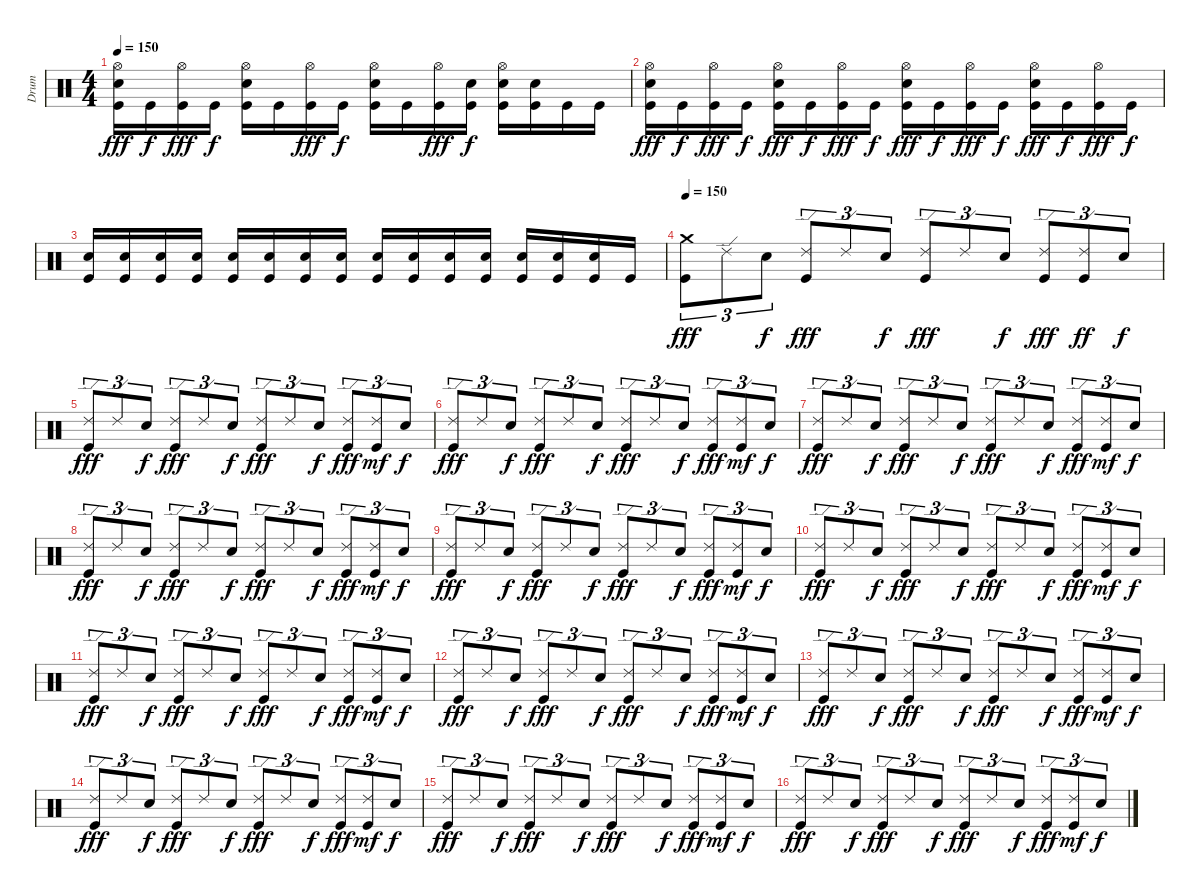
\track ("Drum" "Drum") {instrument percussion}
\staff {score}
\articulation defaults
\ts (4 4)
\tempo 150
\clef neutral
\ks c
("Hi-Hat (open)" "Snare (hit) 2" "Kick (hit)").16{dy fff} "Kick (hit)".16{dy f} ("Hi-Hat (open)" "Kick (hit)").16{dy fff} "Kick (hit)".16{dy f} ("Hi-Hat (open)" "Snare (hit) 2" "Kick (hit)").16 "Kick (hit)".16 ("Hi-Hat (open)" "Kick (hit)").16{dy fff} "Kick (hit)".16{dy f} ("Hi-Hat (open)" "Snare (hit) 2" "Kick (hit)").16 "Kick (hit)".16 ("Hi-Hat (open)" "Kick (hit)").16{dy fff} ("Snare (hit) 2" "Kick (hit)").16{dy f} ("Hi-Hat (open)" "Snare (hit) 2" "Kick (hit)").16 ("Snare (hit) 2" "Kick (hit)").16 "Kick (hit)".16 "Kick (hit)".16 |
("Hi-Hat (open)" "Snare (hit) 2" "Kick (hit)").16{dy fff} "Kick (hit)".16{dy f} ("Hi-Hat (open)" "Kick (hit)").16{dy fff} "Kick (hit)".16{dy f} ("Hi-Hat (open)" "Snare (hit) 2" "Kick (hit)").16{dy fff} "Kick (hit)".16{dy f} ("Hi-Hat (open)" "Kick (hit)").16{dy fff} "Kick (hit)".16{dy f} ("Hi-Hat (open)" "Snare (hit) 2" "Kick (hit)").16{dy fff} "Kick (hit)".16{dy f} ("Hi-Hat (open)" "Kick (hit)").16{dy fff} "Kick (hit)".16{dy f} ("Hi-Hat (open)" "Snare (hit) 2" "Kick (hit)").16{dy fff} "Kick (hit)".16{dy f} ("Hi-Hat (open)" "Kick (hit)").16{dy fff} "Kick (hit)".16{dy f} |
("Snare (hit) 2" "Kick (hit)").16 ("Snare (hit) 2" "Kick (hit)").16 ("Snare (hit) 2" "Kick (hit)").16 ("Snare (hit) 2" "Kick (hit)").16 ("Snare (hit) 2" "Kick (hit)").16 ("Snare (hit) 2" "Kick (hit)").16 ("Snare (hit) 2" "Kick (hit)").16 ("Snare (hit) 2" "Kick (hit)").16 ("Snare (hit) 2" "Kick (hit)").16 ("Snare (hit) 2" "Kick (hit)").16 ("Snare (hit) 2" "Kick (hit)").16 ("Snare (hit) 2" "Kick (hit)").16 ("Snare (hit) 2" "Kick (hit)").16 ("Snare (hit) 2" "Kick (hit)").16 ("Snare (hit) 2" "Kick (hit)").16 "Kick (hit)".16 |
\tempo 150
("Crash medium (hit)" "Kick (hit)").8{tu (3 2) dy fff} "Ride (edge) 2".8{tu (3 2)} "Snare (hit) 2".8{tu (3 2) dy f} ("Ride (edge) 2" "Kick (hit)").8{tu (3 2) dy fff} "Ride (edge) 2".8{tu (3 2)} "Snare (hit) 2".8{tu (3 2) dy f} ("Ride (edge) 2" "Kick (hit)").8{tu (3 2) dy fff} "Ride (edge) 2".8{tu (3 2)} "Snare (hit) 2".8{tu (3 2) dy f} ("Ride (edge) 2" "Kick (hit)").8{tu (3 2) dy fff} ("Ride (edge) 2" "Kick (hit)").8{tu (3 2) dy ff} "Snare (hit) 2".8{tu (3 2) dy f} |
("Ride (edge) 2" "Kick (hit)").8{tu (3 2) dy fff} "Ride (edge) 2".8{tu (3 2)} "Snare (hit) 2".8{tu (3 2) dy f} ("Ride (edge) 2" "Kick (hit)").8{tu (3 2) dy fff} "Ride (edge) 2".8{tu (3 2)} "Snare (hit) 2".8{tu (3 2) dy f} ("Ride (edge) 2" "Kick (hit)").8{tu (3 2) dy fff} "Ride (edge) 2".8{tu (3 2)} "Snare (hit) 2".8{tu (3 2) dy f} ("Ride (edge) 2" "Kick (hit)").8{tu (3 2) dy fff} ("Ride (edge) 2" "Kick (hit)").8{tu (3 2) dy mf} "Snare (hit) 2".8{tu (3 2) dy f} |
("Ride (edge) 2" "Kick (hit)").8{tu (3 2) dy fff} "Ride (edge) 2".8{tu (3 2)} "Snare (hit) 2".8{tu (3 2) dy f} ("Ride (edge) 2" "Kick (hit)").8{tu (3 2) dy fff} "Ride (edge) 2".8{tu (3 2)} "Snare (hit) 2".8{tu (3 2) dy f} ("Ride (edge) 2" "Kick (hit)").8{tu (3 2) dy fff} "Ride (edge) 2".8{tu (3 2)} "Snare (hit) 2".8{tu (3 2) dy f} ("Ride (edge) 2" "Kick (hit)").8{tu (3 2) dy fff} ("Ride (edge) 2" "Kick (hit)").8{tu (3 2) dy mf} "Snare (hit) 2".8{tu (3 2) dy f} |
("Ride (edge) 2" "Kick (hit)").8{tu (3 2) dy fff} "Ride (edge) 2".8{tu (3 2)} "Snare (hit) 2".8{tu (3 2) dy f} ("Ride (edge) 2" "Kick (hit)").8{tu (3 2) dy fff} "Ride (edge) 2".8{tu (3 2)} "Snare (hit) 2".8{tu (3 2) dy f} ("Ride (edge) 2" "Kick (hit)").8{tu (3 2) dy fff} "Ride (edge) 2".8{tu (3 2)} "Snare (hit) 2".8{tu (3 2) dy f} ("Ride (edge) 2" "Kick (hit)").8{tu (3 2) dy fff} ("Ride (edge) 2" "Kick (hit)").8{tu (3 2) dy mf} "Snare (hit) 2".8{tu (3 2) dy f} |
("Ride (edge) 2" "Kick (hit)").8{tu (3 2) dy fff} "Ride (edge) 2".8{tu (3 2)} "Snare (hit) 2".8{tu (3 2) dy f} ("Ride (edge) 2" "Kick (hit)").8{tu (3 2) dy fff} "Ride (edge) 2".8{tu (3 2)} "Snare (hit) 2".8{tu (3 2) dy f} ("Ride (edge) 2" "Kick (hit)").8{tu (3 2) dy fff} "Ride (edge) 2".8{tu (3 2)} "Snare (hit) 2".8{tu (3 2) dy f} ("Ride (edge) 2" "Kick (hit)").8{tu (3 2) dy fff} ("Ride (edge) 2" "Kick (hit)").8{tu (3 2) dy mf} "Snare (hit) 2".8{tu (3 2) dy f} |
("Ride (edge) 2" "Kick (hit)").8{tu (3 2) dy fff} "Ride (edge) 2".8{tu (3 2)} "Snare (hit) 2".8{tu (3 2) dy f} ("Ride (edge) 2" "Kick (hit)").8{tu (3 2) dy fff} "Ride (edge) 2".8{tu (3 2)} "Snare (hit) 2".8{tu (3 2) dy f} ("Ride (edge) 2" "Kick (hit)").8{tu (3 2) dy fff} "Ride (edge) 2".8{tu (3 2)} "Snare (hit) 2".8{tu (3 2) dy f} ("Ride (edge) 2" "Kick (hit)").8{tu (3 2) dy fff} ("Ride (edge) 2" "Kick (hit)").8{tu (3 2) dy mf} "Snare (hit) 2".8{tu (3 2) dy f} |
("Ride (edge) 2" "Kick (hit)").8{tu (3 2) dy fff} "Ride (edge) 2".8{tu (3 2)} "Snare (hit) 2".8{tu (3 2) dy f} ("Ride (edge) 2" "Kick (hit)").8{tu (3 2) dy fff} "Ride (edge) 2".8{tu (3 2)} "Snare (hit) 2".8{tu (3 2) dy f} ("Ride (edge) 2" "Kick (hit)").8{tu (3 2) dy fff} "Ride (edge) 2".8{tu (3 2)} "Snare (hit) 2".8{tu (3 2) dy f} ("Ride (edge) 2" "Kick (hit)").8{tu (3 2) dy fff} ("Ride (edge) 2" "Kick (hit)").8{tu (3 2) dy mf} "Snare (hit) 2".8{tu (3 2) dy f} |
("Ride (edge) 2" "Kick (hit)").8{tu (3 2) dy fff} "Ride (edge) 2".8{tu (3 2)} "Snare (hit) 2".8{tu (3 2) dy f} ("Ride (edge) 2" "Kick (hit)").8{tu (3 2) dy fff} "Ride (edge) 2".8{tu (3 2)} "Snare (hit) 2".8{tu (3 2) dy f} ("Ride (edge) 2" "Kick (hit)").8{tu (3 2) dy fff} "Ride (edge) 2".8{tu (3 2)} "Snare (hit) 2".8{tu (3 2) dy f} ("Ride (edge) 2" "Kick (hit)").8{tu (3 2) dy fff} ("Ride (edge) 2" "Kick (hit)").8{tu (3 2) dy mf} "Snare (hit) 2".8{tu (3 2) dy f} |
("Ride (edge) 2" "Kick (hit)").8{tu (3 2) dy fff} "Ride (edge) 2".8{tu (3 2)} "Snare (hit) 2".8{tu (3 2) dy f} ("Ride (edge) 2" "Kick (hit)").8{tu (3 2) dy fff} "Ride (edge) 2".8{tu (3 2)} "Snare (hit) 2".8{tu (3 2) dy f} ("Ride (edge) 2" "Kick (hit)").8{tu (3 2) dy fff} "Ride (edge) 2".8{tu (3 2)} "Snare (hit) 2".8{tu (3 2) dy f} ("Ride (edge) 2" "Kick (hit)").8{tu (3 2) dy fff} ("Ride (edge) 2" "Kick (hit)").8{tu (3 2) dy mf} "Snare (hit) 2".8{tu (3 2) dy f} |
("Ride (edge) 2" "Kick (hit)").8{tu (3 2) dy fff} "Ride (edge) 2".8{tu (3 2)} "Snare (hit) 2".8{tu (3 2) dy f} ("Ride (edge) 2" "Kick (hit)").8{tu (3 2) dy fff} "Ride (edge) 2".8{tu (3 2)} "Snare (hit) 2".8{tu (3 2) dy f} ("Ride (edge) 2" "Kick (hit)").8{tu (3 2) dy fff} "Ride (edge) 2".8{tu (3 2)} "Snare (hit) 2".8{tu (3 2) dy f} ("Ride (edge) 2" "Kick (hit)").8{tu (3 2) dy fff} ("Ride (edge) 2" "Kick (hit)").8{tu (3 2) dy mf} "Snare (hit) 2".8{tu (3 2) dy f} |
("Ride (edge) 2" "Kick (hit)").8{tu (3 2) dy fff} "Ride (edge) 2".8{tu (3 2)} "Snare (hit) 2".8{tu (3 2) dy f} ("Ride (edge) 2" "Kick (hit)").8{tu (3 2) dy fff} "Ride (edge) 2".8{tu (3 2)} "Snare (hit) 2".8{tu (3 2) dy f} ("Ride (edge) 2" "Kick (hit)").8{tu (3 2) dy fff} "Ride (edge) 2".8{tu (3 2)} "Snare (hit) 2".8{tu (3 2) dy f} ("Ride (edge) 2" "Kick (hit)").8{tu (3 2) dy fff} ("Ride (edge) 2" "Kick (hit)").8{tu (3 2) dy mf} "Snare (hit) 2".8{tu (3 2) dy f} |
("Ride (edge) 2" "Kick (hit)").8{tu (3 2) dy fff} "Ride (edge) 2".8{tu (3 2)} "Snare (hit) 2".8{tu (3 2) dy f} ("Ride (edge) 2" "Kick (hit)").8{tu (3 2) dy fff} "Ride (edge) 2".8{tu (3 2)} "Snare (hit) 2".8{tu (3 2) dy f} ("Ride (edge) 2" "Kick (hit)").8{tu (3 2) dy fff} "Ride (edge) 2".8{tu (3 2)} "Snare (hit) 2".8{tu (3 2) dy f} ("Ride (edge) 2" "Kick (hit)").8{tu (3 2) dy fff} ("Ride (edge) 2" "Kick (hit)").8{tu (3 2) dy mf} "Snare (hit) 2".8{tu (3 2) dy f} |
("Ride (edge) 2" "Kick (hit)").8{tu (3 2) dy fff} "Ride (edge) 2".8{tu (3 2)} "Snare (hit) 2".8{tu (3 2) dy f} ("Ride (edge) 2" "Kick (hit)").8{tu (3 2) dy fff} "Ride (edge) 2".8{tu (3 2)} "Snare (hit) 2".8{tu (3 2) dy f} ("Ride (edge) 2" "Kick (hit)").8{tu (3 2) dy fff} "Ride (edge) 2".8{tu (3 2)} "Snare (hit) 2".8{tu (3 2) dy f} ("Ride (edge) 2" "Kick (hit)").8{tu (3 2) dy fff} ("Ride (edge) 2" "Kick (hit)").8{tu (3 2) dy mf} "Snare (hit) 2".8{tu (3 2) dy f}
